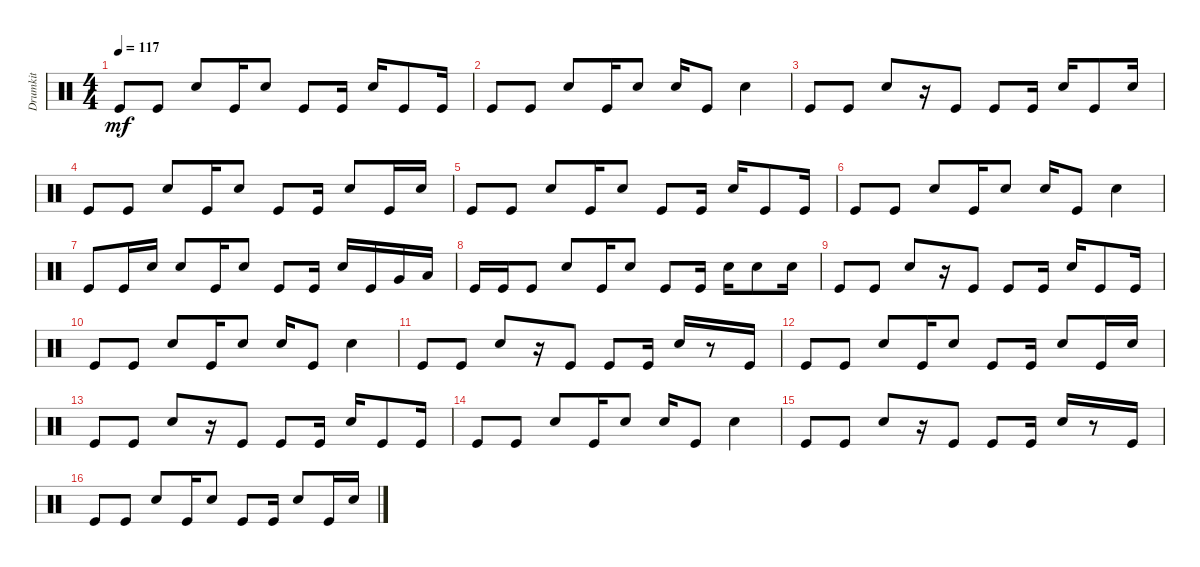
\track ("Drumkit" "Drumkit") {instrument percussion}
\staff {score}
\articulation defaults
\ts (4 4)
\tempo 117
\clef neutral
\ks c "Kick (hit)".8{dy mf} "Kick (hit)".8 "Snare (hit) 2".8 "Kick (hit)".16 "Snare (hit) 2".8 "Kick (hit)".8 "Kick (hit)".16 "Snare (hit) 2".16 "Kick (hit)".8 "Kick (hit)".16
|
"Kick (hit)".8 "Kick (hit)".8 "Snare (hit) 2".8 "Kick (hit)".16 "Snare (hit) 2".8 "Snare (hit) 2".16 "Kick (hit)".8 "Snare (hit) 2".4 |
"Kick (hit)".8 "Kick (hit)".8 "Snare (hit) 2".8 r.16 "Kick (hit)".8 "Kick (hit)".8 "Kick (hit)".16 "Snare (hit) 2".16 "Kick (hit)".8 "Snare (hit) 2".16 |
"Kick (hit)".8 "Kick (hit)".8 "Snare (hit) 2".8 "Kick (hit)".16 "Snare (hit) 2".8 "Kick (hit)".8 "Kick (hit)".16 "Snare (hit) 2".8 "Kick (hit)".16 "Snare (hit) 2".16 |
"Kick (hit)".8 "Kick (hit)".8 "Snare (hit) 2".8 "Kick (hit)".16 "Snare (hit) 2".8 "Kick (hit)".8 "Kick (hit)".16 "Snare (hit) 2".16 "Kick (hit)".8 "Kick (hit)".16 |
"Kick (hit)".8 "Kick (hit)".8 "Snare (hit) 2".8 "Kick (hit)".16 "Snare (hit) 2".8 "Snare (hit) 2".16 "Kick (hit)".8 "Snare (hit) 2".4 |
"Kick (hit)".8 "Kick (hit)".16 "Snare (hit) 2".16 "Snare (hit) 2".8 "Kick (hit)".16 "Snare (hit) 2".8 "Kick (hit)".8 "Kick (hit)".16 "Snare (hit) 2".16 "Kick (hit)".16 "Very Low Tom (hit)".16 "Low Floor Tom (hit)".16 |
"Kick (hit)".16 "Kick (hit)".16 "Kick (hit)".8 "Snare (hit) 2".8 "Kick (hit)".16 "Snare (hit) 2".8 "Kick (hit)".8 "Kick (hit)".16 "Snare (hit) 2".16 "Snare (hit) 2".8 "Snare (hit) 2".16 |
"Kick (hit)".8 "Kick (hit)".8 "Snare (hit) 2".8 r.16 "Kick (hit)".8 "Kick (hit)".8 "Kick (hit)".16 "Snare (hit) 2".16 "Kick (hit)".8 "Kick (hit)".16 |
"Kick (hit)".8 "Kick (hit)".8 "Snare (hit) 2".8 "Kick (hit)".16 "Snare (hit) 2".8 "Snare (hit) 2".16 "Kick (hit)".8 "Snare (hit) 2".4 |
"Kick (hit)".8 "Kick (hit)".8 "Snare (hit) 2".8 r.16 "Kick (hit)".8 "Kick (hit)".8 "Kick (hit)".16 "Snare (hit) 2".16 r.8 "Kick (hit)".16 |
"Kick (hit)".8 "Kick (hit)".8 "Snare (hit) 2".8 "Kick (hit)".16 "Snare (hit) 2".8 "Kick (hit)".8 "Kick (hit)".16 "Snare (hit) 2".8 "Kick (hit)".16 "Snare (hit) 2".16 |
"Kick (hit)".8 "Kick (hit)".8 "Snare (hit) 2".8 r.16 "Kick (hit)".8 "Kick (hit)".8 "Kick (hit)".16 "Snare (hit) 2".16 "Kick (hit)".8 "Kick (hit)".16 |
"Kick (hit)".8 "Kick (hit)".8 "Snare (hit) 2".8 "Kick (hit)".16 "Snare (hit) 2".8 "Snare (hit) 2".16 "Kick (hit)".8 "Snare (hit) 2".4 |
"Kick (hit)".8 "Kick (hit)".8 "Snare (hit) 2".8 r.16 "Kick (hit)".8 "Kick (hit)".8 "Kick (hit)".16 "Snare (hit) 2".16 r.8 "Kick (hit)".16 |
"Kick (hit)".8 "Kick (hit)".8 "Snare (hit) 2".8 "Kick (hit)".16 "Snare (hit) 2".8 "Kick (hit)".8 "Kick (hit)".16 "Snare (hit) 2".8 "Kick (hit)".16 "Snare (hit) 2".16
